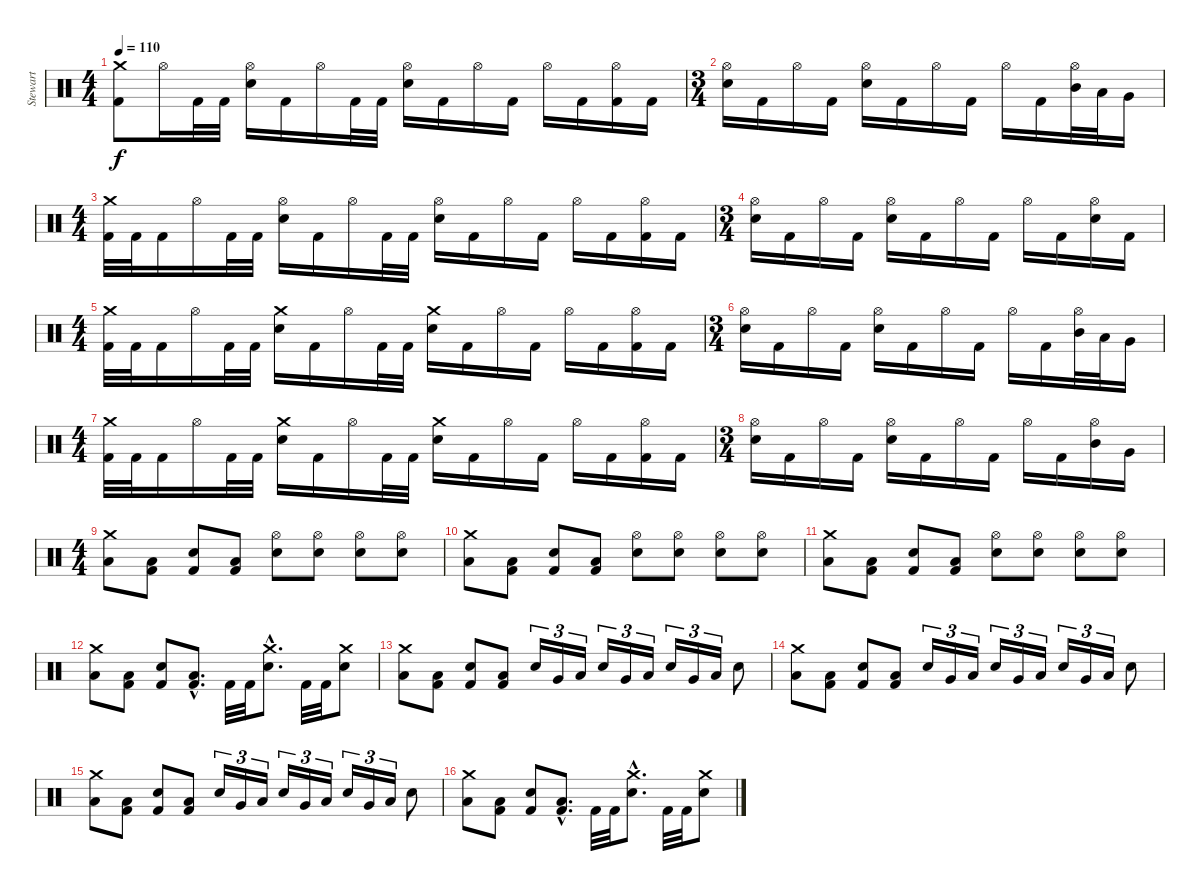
\track ("Stewart" "Stewart") {instrument percussion}
\staff {score}
\articulation defaults
\ts (4 4)
\tempo 110
\clef neutral
\ks c
("Crash medium (hit)" "Kick (hit) 2").8{dy f} "Hi-Hat (open)".16 "Kick (hit) 2".32 "Kick (hit) 2".32 ("Hi-Hat (open)" "Electric Snare (hit)").16 "Kick (hit) 2".16 "Hi-Hat (open)".16 "Kick (hit) 2".32 "Kick (hit) 2".32 ("Hi-Hat (open)" "Electric Snare (hit)").16 "Kick (hit) 2".16 "Hi-Hat (open)".16 "Kick (hit) 2".16 "Hi-Hat (open)".16 "Kick (hit) 2".16 ("Hi-Hat (open)" "Kick (hit) 2").16 "Kick (hit) 2".16 |
\ts (3 4)
("Hi-Hat (open)" "Electric Snare (hit)").16 "Kick (hit) 2".16 "Hi-Hat (open)".16 "Kick (hit) 2".16 ("Hi-Hat (open)" "Electric Snare (hit)").16 "Kick (hit) 2".16 "Hi-Hat (open)".16 "Kick (hit) 2".16 "Hi-Hat (open)".16 "Kick (hit) 2".16 ("Hi-Hat (open)" "Mid Tom (hit)").32 "Low Tom (hit)".32 "Very Low Tom (hit)".16 |
\ts (4 4)
("Crash medium (hit)" "Kick (hit) 2").32 "Kick (hit) 2".32 "Kick (hit) 2".16 "Hi-Hat (open)".16 "Kick (hit) 2".32 "Kick (hit) 2".32 ("Hi-Hat (open)" "Electric Snare (hit)").16 "Kick (hit) 2".16 "Hi-Hat (open)".16 "Kick (hit) 2".32 "Kick (hit) 2".32 ("Hi-Hat (open)" "Electric Snare (hit)").16 "Kick (hit) 2".16 "Hi-Hat (open)".16 "Kick (hit) 2".16 "Hi-Hat (open)".16 "Kick (hit) 2".16 ("Hi-Hat (open)" "Kick (hit) 2").16 "Kick (hit) 2".16 |
\ts (3 4)
("Hi-Hat (open)" "Electric Snare (hit)").16 "Kick (hit) 2".16 "Hi-Hat (open)".16 "Kick (hit) 2".16 ("Hi-Hat (open)" "Electric Snare (hit)").16 "Kick (hit) 2".16 "Hi-Hat (open)".16 "Kick (hit) 2".16 "Hi-Hat (open)".16 "Kick (hit) 2".16 ("Hi-Hat (open)" "Electric Snare (hit)").16 "Kick (hit) 2".16 |
\ts (4 4)
("Crash medium (hit)" "Kick (hit) 2").32 "Kick (hit) 2".32 "Kick (hit) 2".16 "Hi-Hat (open)".16 "Kick (hit) 2".32 "Kick (hit) 2".32 ("Crash medium (hit)" "Electric Snare (hit)").16 "Kick (hit) 2".16 "Hi-Hat (open)".16 "Kick (hit) 2".32 "Kick (hit) 2".32 ("Crash medium (hit)" "Electric Snare (hit)").16 "Kick (hit) 2".16 "Hi-Hat (open)".16 "Kick (hit) 2".16 "Hi-Hat (open)".16 "Kick (hit) 2".16 ("Hi-Hat (open)" "Kick (hit) 2").16 "Kick (hit) 2".16 |
\ts (3 4)
("Hi-Hat (open)" "Electric Snare (hit)").16 "Kick (hit) 2".16 "Hi-Hat (open)".16 "Kick (hit) 2".16 ("Hi-Hat (open)" "Electric Snare (hit)").16 "Kick (hit) 2".16 "Hi-Hat (open)".16 "Kick (hit) 2".16 "Hi-Hat (open)".16 "Kick (hit) 2".16 ("Hi-Hat (open)" "Mid Tom (hit)").32 "Low Tom (hit)".32 "Very Low Tom (hit)".16 |
\ts (4 4)
("Crash medium (hit)" "Kick (hit) 2").32 "Kick (hit) 2".32 "Kick (hit) 2".16 "Hi-Hat (open)".16 "Kick (hit) 2".32 "Kick (hit) 2".32 ("Crash medium (hit)" "Electric Snare (hit)").16 "Kick (hit) 2".16 "Hi-Hat (open)".16 "Kick (hit) 2".32 "Kick (hit) 2".32 ("Crash medium (hit)" "Electric Snare (hit)").16 "Kick (hit) 2".16 "Hi-Hat (open)".16 "Kick (hit) 2".16 "Hi-Hat (open)".16 "Kick (hit) 2".16 ("Hi-Hat (open)" "Kick (hit) 2").16 "Kick (hit) 2".16 |
\ts (3 4)
("Hi-Hat (open)" "Electric Snare (hit)").16 "Kick (hit) 2".16 "Hi-Hat (open)".16 "Kick (hit) 2".16 ("Hi-Hat (open)" "Electric Snare (hit)").16 "Kick (hit) 2".16 "Hi-Hat (open)".16 "Kick (hit) 2".16 "Hi-Hat (open)".16 "Kick (hit) 2".16 ("Hi-Hat (open)" "Mid Tom (hit)").16 "Very Low Tom (hit)".16 |
\ts (4 4)
("Low Tom (hit)" "Crash medium (hit)").8 ("Low Tom (hit)" "Kick (hit) 2").8 ("Electric Snare (hit)" "Kick (hit) 2").8 ("Low Tom (hit)" "Kick (hit) 2").8 ("Electric Snare (hit)" "Hi-Hat (open)").8 ("Electric Snare (hit)" "Hi-Hat (open)").8 ("Electric Snare (hit)" "Hi-Hat (open)").8 ("Electric Snare (hit)" "Hi-Hat (open)").8 |
("Low Tom (hit)" "Crash medium (hit)").8 ("Low Tom (hit)" "Kick (hit) 2").8 ("Electric Snare (hit)" "Kick (hit) 2").8 ("Low Tom (hit)" "Kick (hit) 2").8 ("Electric Snare (hit)" "Hi-Hat (open)").8 ("Electric Snare (hit)" "Hi-Hat (open)").8 ("Electric Snare (hit)" "Hi-Hat (open)").8 ("Electric Snare (hit)" "Hi-Hat (open)").8 |
("Low Tom (hit)" "Crash medium (hit)").8 ("Low Tom (hit)" "Kick (hit) 2").8 ("Electric Snare (hit)" "Kick (hit) 2").8 ("Low Tom (hit)" "Kick (hit) 2").8 ("Electric Snare (hit)" "Hi-Hat (open)").8 ("Electric Snare (hit)" "Hi-Hat (open)").8 ("Electric Snare (hit)" "Hi-Hat (open)").8 ("Electric Snare (hit)" "Hi-Hat (open)").8 |
("Low Tom (hit)" "Crash medium (hit)").8 ("Low Tom (hit)" "Kick (hit) 2").8 ("Electric Snare (hit)" "Kick (hit) 2").8 ("Low Tom (hit)"{hac} "Kick (hit) 2"{hac}).8{d} "Kick (hit) 2".32 "Kick (hit) 2".32 ("Crash medium (hit)"{hac} "Electric Snare (hit)"{hac}).8{d} "Kick (hit) 2".32 "Kick (hit) 2".32 ("Crash medium (hit)" "Electric Snare (hit)").8 |
("Low Tom (hit)" "Crash medium (hit)").8 ("Low Tom (hit)" "Kick (hit) 2").8 ("Electric Snare (hit)" "Kick (hit) 2").8 ("Low Tom (hit)" "Kick (hit) 2").8 "Electric Snare (hit)".16{tu (3 2)} "Very Low Tom (hit)".16{tu (3 2)} "Low Tom (hit)".16{tu (3 2)} "Electric Snare (hit)".16{tu (3 2)} "Very Low Tom (hit)".16{tu (3 2)} "Low Tom (hit)".16{tu (3 2)} "Electric Snare (hit)".16{tu (3 2)} "Very Low Tom (hit)".16{tu (3 2)} "Low Tom (hit)".16{tu (3 2)} "Electric Snare (hit)".8 |
("Low Tom (hit)" "Crash medium (hit)").8 ("Low Tom (hit)" "Kick (hit) 2").8 ("Electric Snare (hit)" "Kick (hit) 2").8 ("Low Tom (hit)" "Kick (hit) 2").8 "Electric Snare (hit)".16{tu (3 2)} "Very Low Tom (hit)".16{tu (3 2)} "Low Tom (hit)".16{tu (3 2)} "Electric Snare (hit)".16{tu (3 2)} "Very Low Tom (hit)".16{tu (3 2)} "Low Tom (hit)".16{tu (3 2)} "Electric Snare (hit)".16{tu (3 2)} "Very Low Tom (hit)".16{tu (3 2)} "Low Tom (hit)".16{tu (3 2)} "Electric Snare (hit)".8 |
("Low Tom (hit)" "Crash medium (hit)").8 ("Low Tom (hit)" "Kick (hit) 2").8 ("Electric Snare (hit)" "Kick (hit) 2").8 ("Low Tom (hit)" "Kick (hit) 2").8 "Electric Snare (hit)".16{tu (3 2)} "Very Low Tom (hit)".16{tu (3 2)} "Low Tom (hit)".16{tu (3 2)} "Electric Snare (hit)".16{tu (3 2)} "Very Low Tom (hit)".16{tu (3 2)} "Low Tom (hit)".16{tu (3 2)} "Electric Snare (hit)".16{tu (3 2)} "Very Low Tom (hit)".16{tu (3 2)} "Low Tom (hit)".16{tu (3 2)} "Electric Snare (hit)".8 |
("Low Tom (hit)" "Crash medium (hit)").8 ("Low Tom (hit)" "Kick (hit) 2").8 ("Electric Snare (hit)" "Kick (hit) 2").8 ("Low Tom (hit)"{hac} "Kick (hit) 2"{hac}).8{d} "Kick (hit) 2".32 "Kick (hit) 2".32 ("Crash medium (hit)"{hac} "Electric Snare (hit)"{hac}).8{d} "Kick (hit) 2".32 "Kick (hit) 2".32 ("Crash medium (hit)" "Electric Snare (hit)").8
